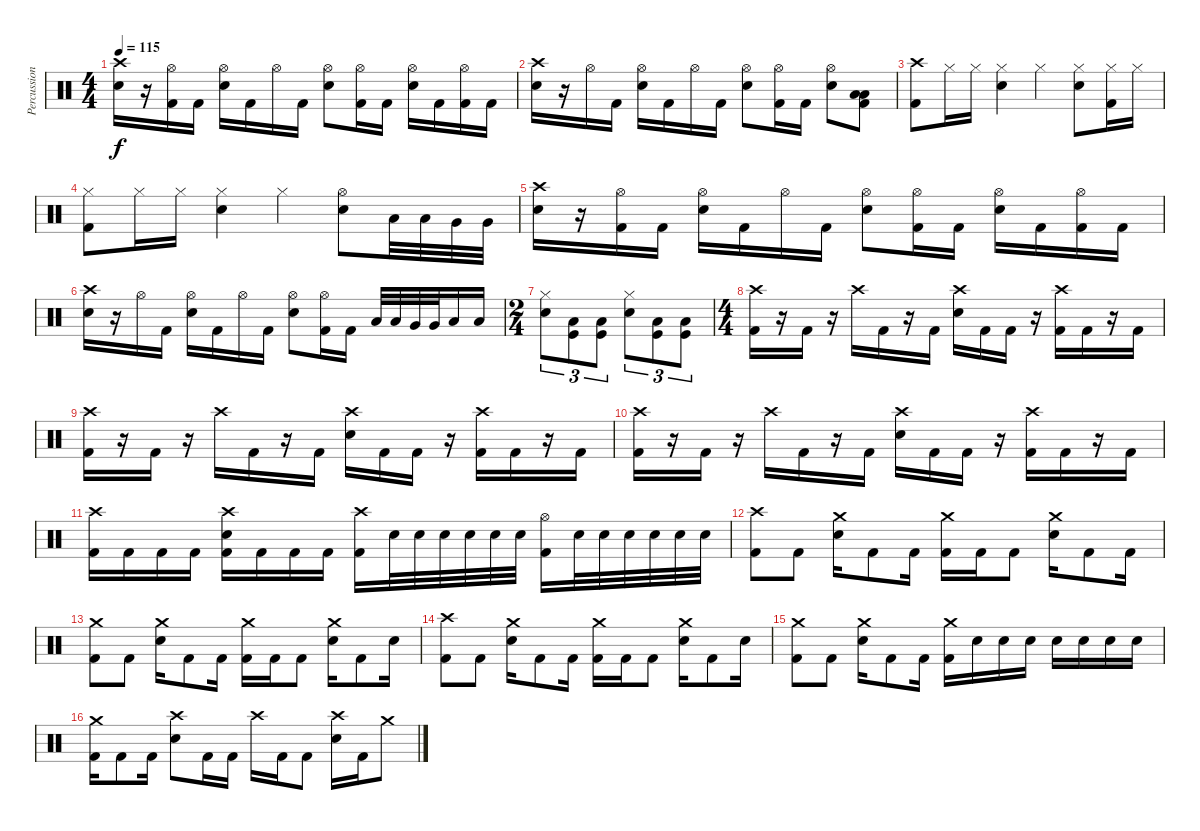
\track ("Percussions" "Percussion") {instrument percussion}
\staff {score}
\articulation defaults
\ts (4 4)
\tempo 115
\clef neutral
\ks c
("Crash high (hit)" "Electric Snare (hit)").16{dy f} r.16 ("Hi-Hat (open)" "Kick (hit) 2").16 "Kick (hit) 2".16 ("Hi-Hat (open)" "Electric Snare (hit)").16 "Kick (hit) 2".16 "Hi-Hat (open)".16 "Kick (hit) 2".16 ("Hi-Hat (open)" "Electric Snare (hit)").8 ("Hi-Hat (open)" "Kick (hit) 2").16 "Kick (hit) 2".16 ("Hi-Hat (open)" "Electric Snare (hit)").16 "Kick (hit) 2".16 ("Hi-Hat (open)" "Kick (hit) 2").16 "Kick (hit) 2".16 |
("Crash high (hit)" "Electric Snare (hit)").16 r.16 "Hi-Hat (open)".16 "Kick (hit) 2".16 ("Hi-Hat (open)" "Electric Snare (hit)").16 "Kick (hit) 2".16 "Hi-Hat (open)".16 "Kick (hit) 2".16 ("Hi-Hat (open)" "Electric Snare (hit)").8 ("Hi-Hat (open)" "Kick (hit) 2").16 "Kick (hit) 2".16 ("Hi-Hat (open)" "Electric Snare (hit)").8 ("Low Tom (hit)" "Low Floor Tom (hit)" "Kick (hit) 2").8 |
("Crash high (hit)" "Kick (hit) 2").8 "Hi-Hat (closed)".16 "Hi-Hat (closed)".16 ("Hi-Hat (closed)" "Electric Snare (hit)").4 "Hi-Hat (closed)".4 ("Hi-Hat (closed)" "Electric Snare (hit)").8 ("Hi-Hat (closed)" "Kick (hit) 2").16 "Hi-Hat (closed)".16 |
("Hi-Hat (closed)" "Kick (hit) 2").8 "Hi-Hat (closed)".16 "Hi-Hat (closed)".16 ("Hi-Hat (closed)" "Electric Snare (hit)").4 "Hi-Hat (closed)".4 ("Hi-Hat (open)" "Electric Snare (hit)").8 "Low Tom (hit)".32 "Low Tom (hit)".32 "Very Low Tom (hit)".32 "Very Low Tom (hit)".32 |
("Crash high (hit)" "Electric Snare (hit)").16 r.16 ("Hi-Hat (open)" "Kick (hit) 2").16 "Kick (hit) 2".16 ("Hi-Hat (open)" "Electric Snare (hit)").16 "Kick (hit) 2".16 "Hi-Hat (open)".16 "Kick (hit) 2".16 ("Hi-Hat (open)" "Electric Snare (hit)").8 ("Hi-Hat (open)" "Kick (hit) 2").16 "Kick (hit) 2".16 ("Hi-Hat (open)" "Electric Snare (hit)").16 "Kick (hit) 2".16 ("Hi-Hat (open)" "Kick (hit) 2").16 "Kick (hit) 2".16 |
("Crash high (hit)" "Electric Snare (hit)").16 r.16 "Hi-Hat (open)".16 "Kick (hit) 2".16 ("Hi-Hat (open)" "Electric Snare (hit)").16 "Kick (hit) 2".16 "Hi-Hat (open)".16 "Kick (hit) 2".16 ("Hi-Hat (open)" "Electric Snare (hit)").8 ("Hi-Hat (open)" "Kick (hit) 2").16 "Kick (hit) 2".16 "Low Tom (hit)".32 "Low Tom (hit)".32 "Very Low Tom (hit)".32 "Very Low Tom (hit)".32 "Low Floor Tom (hit)".16 "Low Floor Tom (hit)".16 |
\ts (2 4)
("Hi-Hat (closed)" "Electric Snare (hit)").8{tu (3 2)} ("Low Tom (hit)" "Kick (hit)").8{tu (3 2)} ("Low Tom (hit)" "Kick (hit)").8{tu (3 2)} ("Hi-Hat (closed)" "Electric Snare (hit)").8{tu (3 2)} ("Low Tom (hit)" "Kick (hit)").8{tu (3 2)} ("Low Tom (hit)" "Kick (hit)").8{tu (3 2)} |
\ts (4 4)
("Crash high (hit)" "Kick (hit) 2").16 r.16 "Kick (hit) 2".16 r.16 "Crash high (hit)".16 "Kick (hit) 2".16 r.16 "Kick (hit) 2".16 ("Crash high (hit)" "Electric Snare (hit)").16 "Kick (hit) 2".16 "Kick (hit) 2".16 r.16 ("Crash high (hit)" "Kick (hit) 2").16 "Kick (hit) 2".16 r.16 "Kick (hit) 2".16 |
("Crash high (hit)" "Kick (hit) 2").16 r.16 "Kick (hit) 2".16 r.16 "Crash high (hit)".16 "Kick (hit) 2".16 r.16 "Kick (hit) 2".16 ("Crash high (hit)" "Electric Snare (hit)").16 "Kick (hit) 2".16 "Kick (hit) 2".16 r.16 ("Crash high (hit)" "Kick (hit) 2").16 "Kick (hit) 2".16 r.16 "Kick (hit) 2".16 |
("Crash high (hit)" "Kick (hit) 2").16 r.16 "Kick (hit) 2".16 r.16 "Crash high (hit)".16 "Kick (hit) 2".16 r.16 "Kick (hit) 2".16 ("Crash high (hit)" "Electric Snare (hit)").16 "Kick (hit) 2".16 "Kick (hit) 2".16 r.16 ("Crash high (hit)" "Kick (hit) 2").16 "Kick (hit) 2".16 r.16 "Kick (hit) 2".16 |
("Crash high (hit)" "Kick (hit) 2").16 "Kick (hit) 2".16 "Kick (hit) 2".16 "Kick (hit) 2".16 ("Crash high (hit)" "Electric Snare (hit)" "Kick (hit) 2").16 "Kick (hit) 2".16 "Kick (hit) 2".16 "Kick (hit) 2".16 ("Crash high (hit)" "Kick (hit) 2").16 "Electric Snare (hit)".32 "Electric Snare (hit)".32 "Electric Snare (hit)".32 "Electric Snare (hit)".32 "Electric Snare (hit)".32 "Electric Snare (hit)".32 ("Hi-Hat (open)" "Kick (hit) 2").16 "Electric Snare (hit)".32 "Electric Snare (hit)".32 "Electric Snare (hit)".32 "Electric Snare (hit)".32 "Electric Snare (hit)".32 "Electric Snare (hit)".32 |
("Crash high (hit)" "Kick (hit) 2").8 "Kick (hit) 2".8 ("Crash medium (hit)" "Electric Snare (hit)").16 "Kick (hit) 2".8 "Kick (hit) 2".16 ("Crash medium (hit)" "Kick (hit) 2").16 "Kick (hit) 2".16 "Kick (hit) 2".8 ("Crash medium (hit)" "Electric Snare (hit)").16 "Kick (hit) 2".8 "Kick (hit) 2".16 |
("Crash medium (hit)" "Kick (hit) 2").8 "Kick (hit) 2".8 ("Crash medium (hit)" "Electric Snare (hit)").16 "Kick (hit) 2".8 "Kick (hit) 2".16 ("Crash medium (hit)" "Kick (hit) 2").16 "Kick (hit) 2".16 "Kick (hit) 2".8 ("Crash medium (hit)" "Electric Snare (hit)").16 "Kick (hit) 2".8 "Electric Snare (hit)".16 |
("Crash high (hit)" "Kick (hit) 2").8 "Kick (hit) 2".8 ("Crash medium (hit)" "Electric Snare (hit)").16 "Kick (hit) 2".8 "Kick (hit) 2".16 ("Crash medium (hit)" "Kick (hit) 2").16 "Kick (hit) 2".16 "Kick (hit) 2".8 ("Crash medium (hit)" "Electric Snare (hit)").16 "Kick (hit) 2".8 "Electric Snare (hit)".16 |
("Crash medium (hit)" "Kick (hit) 2").8 "Kick (hit) 2".8 ("Crash medium (hit)" "Electric Snare (hit)").16 "Kick (hit) 2".8 "Kick (hit) 2".16 ("Crash medium (hit)" "Kick (hit) 2").16 "Electric Snare (hit)".16 "Electric Snare (hit)".16 "Electric Snare (hit)".16 "Electric Snare (hit)".16 "Electric Snare (hit)".16 "Electric Snare (hit)".16 "Electric Snare (hit)".16 |
("Crash medium (hit)" "Kick (hit) 2").16 "Kick (hit) 2".8 "Kick (hit) 2".16 ("Crash high (hit)" "Electric Snare (hit)").8 "Kick (hit) 2".16 "Kick (hit) 2".16 "Crash high (hit)".16 "Kick (hit) 2".16 "Kick (hit) 2".8 ("Crash high (hit)" "Electric Snare (hit)").16 "Kick (hit) 2".16 "Crash medium (hit)".8
